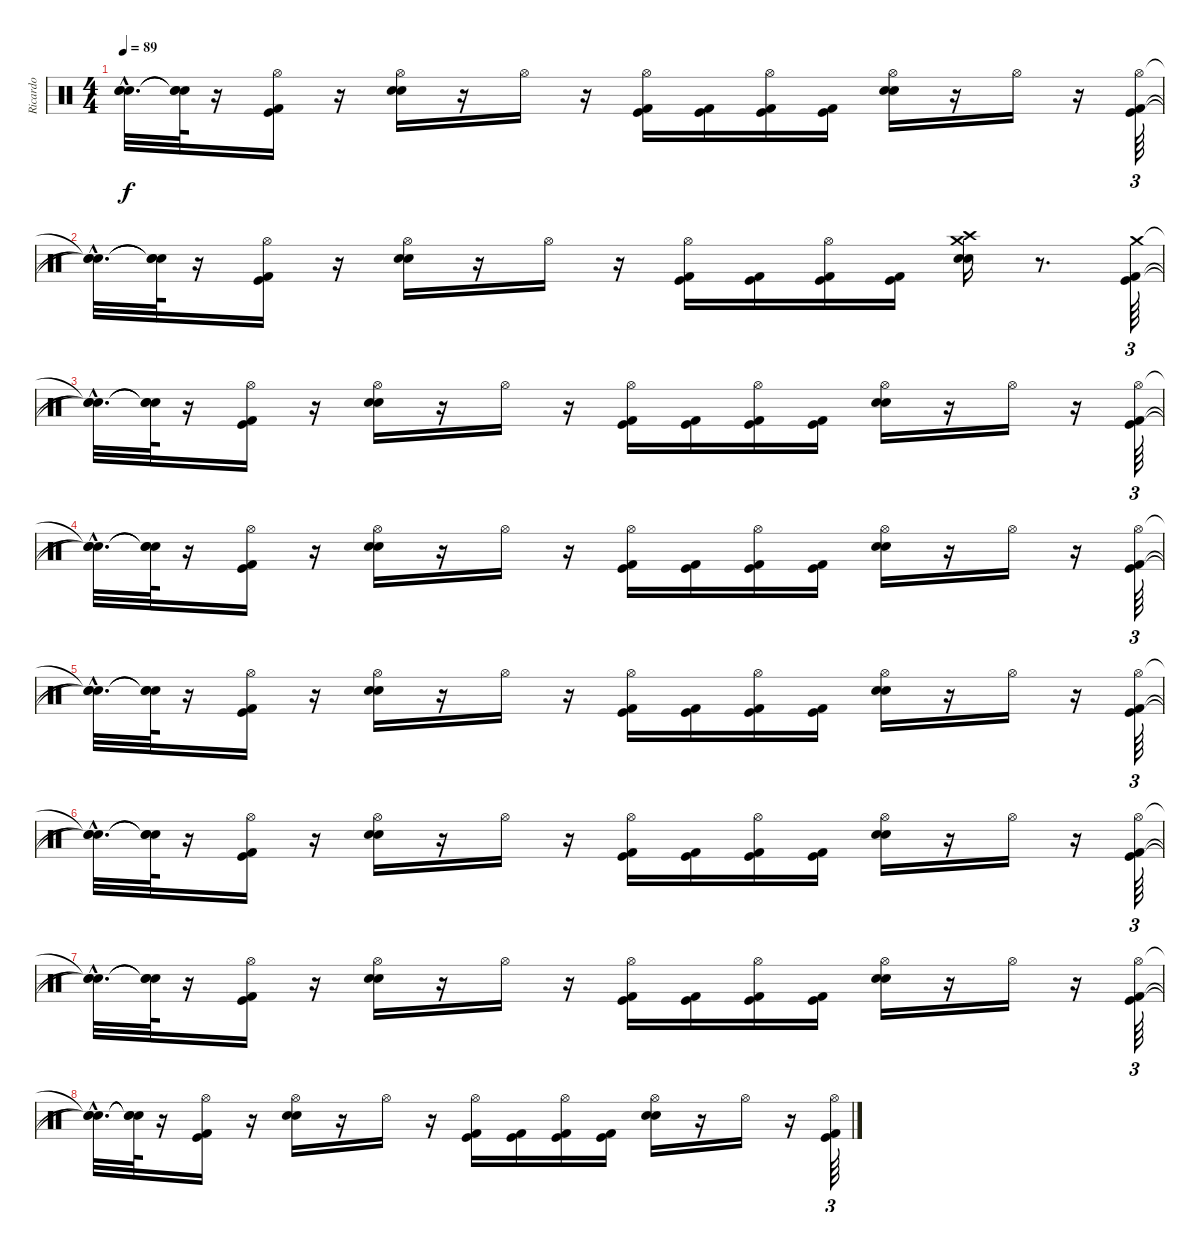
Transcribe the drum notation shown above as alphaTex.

\track ("Ricardo" "Ricardo") {instrument percussion}
\staff {score}
\articulation defaults
\ts (4 4)
\tempo 89
\clef neutral
\ks c
("Snare (hit)"{hac t} "Snare (hit)"{hac t} "Snare (hit)"{hac t}).32{d dy f} ("Snare (hit)"{t} "Snare (hit)"{t} "Snare (hit)"{t}).64 r.16 ("Hi-Hat (open)" "Kick (hit) 2" "Kick (hit)").16 r.16 ("Hi-Hat (open)" "Electric Snare (hit)" "Snare (hit) 2").16 r.16 "Hi-Hat (open)".16 r.16 ("Hi-Hat (open)" "Kick (hit) 2" "Kick (hit)").16 ("Kick (hit) 2" "Kick (hit)").16 ("Hi-Hat (open)" "Kick (hit) 2" "Kick (hit)").16 ("Kick (hit) 2" "Kick (hit)").16 ("Hi-Hat (open)" "Electric Snare (hit)" "Snare (hit) 2").16 r.16 "Hi-Hat (open)".16 r.16 ("Hi-Hat (open)" "Kick (hit) 2" "Kick (hit)").64{tu (3 2)} |
("Snare (hit)"{hac t} "Snare (hit)"{hac t} "Snare (hit)"{hac t}).32{d} ("Snare (hit)"{t} "Snare (hit)"{t} "Snare (hit)"{t}).64 r.16 ("Hi-Hat (open)" "Kick (hit) 2" "Kick (hit)").16 r.16 ("Hi-Hat (open)" "Electric Snare (hit)" "Snare (hit) 2").16 r.16 "Hi-Hat (open)".16 r.16 ("Hi-Hat (open)" "Kick (hit) 2" "Kick (hit)").16 ("Kick (hit) 2" "Kick (hit)").16 ("Hi-Hat (open)" "Kick (hit) 2" "Kick (hit)").16 ("Kick (hit) 2" "Kick (hit)").16 ("Crash medium (hit)" "Crash high (hit)" "Electric Snare (hit)" "Snare (hit) 2").16 r.8{d} ("Crash medium (hit)" "Kick (hit) 2" "Kick (hit)").64{tu (3 2)} |
("Snare (hit)"{hac t} "Snare (hit)"{hac t} "Snare (hit)"{hac t}).32{d} ("Snare (hit)"{t} "Snare (hit)"{t} "Snare (hit)"{t}).64 r.16 ("Hi-Hat (open)" "Kick (hit) 2" "Kick (hit)").16 r.16 ("Hi-Hat (open)" "Electric Snare (hit)" "Snare (hit) 2").16 r.16 "Hi-Hat (open)".16 r.16 ("Hi-Hat (open)" "Kick (hit) 2" "Kick (hit)").16 ("Kick (hit) 2" "Kick (hit)").16 ("Hi-Hat (open)" "Kick (hit) 2" "Kick (hit)").16 ("Kick (hit) 2" "Kick (hit)").16 ("Hi-Hat (open)" "Electric Snare (hit)" "Snare (hit) 2").16 r.16 "Hi-Hat (open)".16 r.16 ("Hi-Hat (open)" "Kick (hit) 2" "Kick (hit)").64{tu (3 2)} |
("Snare (hit)"{hac t} "Snare (hit)"{hac t} "Snare (hit)"{hac t}).32{d} ("Snare (hit)"{t} "Snare (hit)"{t} "Snare (hit)"{t}).64 r.16 ("Hi-Hat (open)" "Kick (hit) 2" "Kick (hit)").16 r.16 ("Hi-Hat (open)" "Electric Snare (hit)" "Snare (hit) 2").16 r.16 "Hi-Hat (open)".16 r.16 ("Hi-Hat (open)" "Kick (hit) 2" "Kick (hit)").16 ("Kick (hit) 2" "Kick (hit)").16 ("Hi-Hat (open)" "Kick (hit) 2" "Kick (hit)").16 ("Kick (hit) 2" "Kick (hit)").16 ("Hi-Hat (open)" "Electric Snare (hit)" "Snare (hit) 2").16 r.16 "Hi-Hat (open)".16 r.16 ("Hi-Hat (open)" "Kick (hit) 2" "Kick (hit)").64{tu (3 2)} |
("Snare (hit)"{hac t} "Snare (hit)"{hac t} "Snare (hit)"{hac t}).32{d} ("Snare (hit)"{t} "Snare (hit)"{t} "Snare (hit)"{t}).64 r.16 ("Hi-Hat (open)" "Kick (hit) 2" "Kick (hit)").16 r.16 ("Hi-Hat (open)" "Electric Snare (hit)" "Snare (hit) 2").16 r.16 "Hi-Hat (open)".16 r.16 ("Hi-Hat (open)" "Kick (hit) 2" "Kick (hit)").16 ("Kick (hit) 2" "Kick (hit)").16 ("Hi-Hat (open)" "Kick (hit) 2" "Kick (hit)").16 ("Kick (hit) 2" "Kick (hit)").16 ("Hi-Hat (open)" "Electric Snare (hit)" "Snare (hit) 2").16 r.16 "Hi-Hat (open)".16 r.16 ("Hi-Hat (open)" "Kick (hit) 2" "Kick (hit)").64{tu (3 2)} |
("Snare (hit)"{hac t} "Snare (hit)"{hac t} "Snare (hit)"{hac t}).32{d} ("Snare (hit)"{t} "Snare (hit)"{t} "Snare (hit)"{t}).64 r.16 ("Hi-Hat (open)" "Kick (hit) 2" "Kick (hit)").16 r.16 ("Hi-Hat (open)" "Electric Snare (hit)" "Snare (hit) 2").16 r.16 "Hi-Hat (open)".16 r.16 ("Hi-Hat (open)" "Kick (hit) 2" "Kick (hit)").16 ("Kick (hit) 2" "Kick (hit)").16 ("Hi-Hat (open)" "Kick (hit) 2" "Kick (hit)").16 ("Kick (hit) 2" "Kick (hit)").16 ("Hi-Hat (open)" "Electric Snare (hit)" "Snare (hit) 2").16 r.16 "Hi-Hat (open)".16 r.16 ("Hi-Hat (open)" "Kick (hit) 2" "Kick (hit)").64{tu (3 2)} |
("Snare (hit)"{hac t} "Snare (hit)"{hac t} "Snare (hit)"{hac t}).32{d} ("Snare (hit)"{t} "Snare (hit)"{t} "Snare (hit)"{t}).64 r.16 ("Hi-Hat (open)" "Kick (hit) 2" "Kick (hit)").16 r.16 ("Hi-Hat (open)" "Electric Snare (hit)" "Snare (hit) 2").16 r.16 "Hi-Hat (open)".16 r.16 ("Hi-Hat (open)" "Kick (hit) 2" "Kick (hit)").16 ("Kick (hit) 2" "Kick (hit)").16 ("Hi-Hat (open)" "Kick (hit) 2" "Kick (hit)").16 ("Kick (hit) 2" "Kick (hit)").16 ("Hi-Hat (open)" "Electric Snare (hit)" "Snare (hit) 2").16 r.16 "Hi-Hat (open)".16 r.16 ("Hi-Hat (open)" "Kick (hit) 2" "Kick (hit)").64{tu (3 2)} |
("Snare (hit)"{hac t} "Snare (hit)"{hac t} "Snare (hit)"{hac t}).32{d} ("Snare (hit)"{t} "Snare (hit)"{t} "Snare (hit)"{t}).64 r.16 ("Hi-Hat (open)" "Kick (hit) 2" "Kick (hit)").16 r.16 ("Hi-Hat (open)" "Electric Snare (hit)" "Snare (hit) 2").16 r.16 "Hi-Hat (open)".16 r.16 ("Hi-Hat (open)" "Kick (hit) 2" "Kick (hit)").16 ("Kick (hit) 2" "Kick (hit)").16 ("Hi-Hat (open)" "Kick (hit) 2" "Kick (hit)").16 ("Kick (hit) 2" "Kick (hit)").16 ("Hi-Hat (open)" "Electric Snare (hit)" "Snare (hit) 2").16 r.16 "Hi-Hat (open)".16 r.16 ("Hi-Hat (open)" "Kick (hit) 2" "Kick (hit)").64{tu (3 2)}
